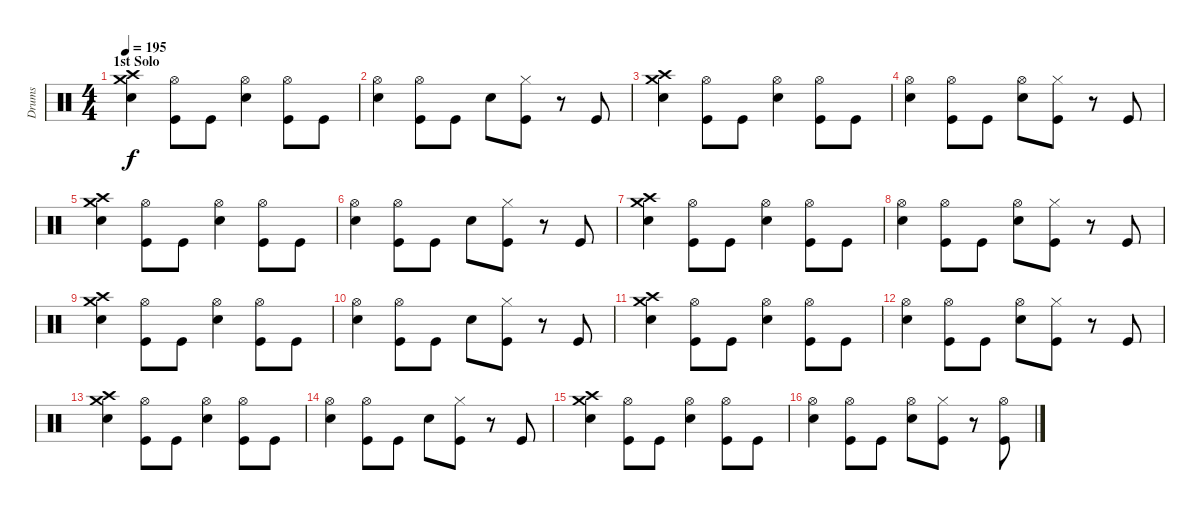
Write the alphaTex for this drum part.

\track ("Drums" "Drums") {instrument percussion}
\staff {score}
\articulation defaults
\ts (4 4)
\section ("" "1st Solo")
\tempo 195
\clef neutral
\ks c
("Crash medium (hit)" "Crash high (hit)" "Electric Snare (hit)").4{dy f} ("Hi-Hat (open)" "Kick (hit)").8 "Kick (hit)".8 ("Hi-Hat (open)" "Electric Snare (hit)").4 ("Hi-Hat (open)" "Kick (hit)").8 "Kick (hit)".8 |
("Hi-Hat (open)" "Electric Snare (hit)").4 ("Hi-Hat (open)" "Kick (hit)").8 "Kick (hit)".8 "Electric Snare (hit)".8 ("Hi-Hat (closed)" "Kick (hit)").8 r.8 "Kick (hit)".8 |
("Crash medium (hit)" "Crash high (hit)" "Electric Snare (hit)").4 ("Hi-Hat (open)" "Kick (hit)").8 "Kick (hit)".8 ("Hi-Hat (open)" "Electric Snare (hit)").4 ("Hi-Hat (open)" "Kick (hit)").8 "Kick (hit)".8 |
("Hi-Hat (open)" "Electric Snare (hit)").4 ("Hi-Hat (open)" "Kick (hit)").8 "Kick (hit)".8 ("Hi-Hat (open)" "Electric Snare (hit)").8 ("Hi-Hat (closed)" "Kick (hit)").8 r.8 "Kick (hit)".8 |
("Crash medium (hit)" "Crash high (hit)" "Electric Snare (hit)").4 ("Hi-Hat (open)" "Kick (hit)").8 "Kick (hit)".8 ("Hi-Hat (open)" "Electric Snare (hit)").4 ("Hi-Hat (open)" "Kick (hit)").8 "Kick (hit)".8 |
("Hi-Hat (open)" "Electric Snare (hit)").4 ("Hi-Hat (open)" "Kick (hit)").8 "Kick (hit)".8 "Electric Snare (hit)".8 ("Hi-Hat (closed)" "Kick (hit)").8 r.8 "Kick (hit)".8 |
("Crash medium (hit)" "Crash high (hit)" "Electric Snare (hit)").4 ("Hi-Hat (open)" "Kick (hit)").8 "Kick (hit)".8 ("Hi-Hat (open)" "Electric Snare (hit)").4 ("Hi-Hat (open)" "Kick (hit)").8 "Kick (hit)".8 |
("Hi-Hat (open)" "Electric Snare (hit)").4 ("Hi-Hat (open)" "Kick (hit)").8 "Kick (hit)".8 ("Hi-Hat (open)" "Electric Snare (hit)").8 ("Hi-Hat (closed)" "Kick (hit)").8 r.8 "Kick (hit)".8 |
("Crash medium (hit)" "Crash high (hit)" "Electric Snare (hit)").4 ("Hi-Hat (open)" "Kick (hit)").8 "Kick (hit)".8 ("Hi-Hat (open)" "Electric Snare (hit)").4 ("Hi-Hat (open)" "Kick (hit)").8 "Kick (hit)".8 |
("Hi-Hat (open)" "Electric Snare (hit)").4 ("Hi-Hat (open)" "Kick (hit)").8 "Kick (hit)".8 "Electric Snare (hit)".8 ("Hi-Hat (closed)" "Kick (hit)").8 r.8 "Kick (hit)".8 |
("Crash medium (hit)" "Crash high (hit)" "Electric Snare (hit)").4 ("Hi-Hat (open)" "Kick (hit)").8 "Kick (hit)".8 ("Hi-Hat (open)" "Electric Snare (hit)").4 ("Hi-Hat (open)" "Kick (hit)").8 "Kick (hit)".8 |
("Hi-Hat (open)" "Electric Snare (hit)").4 ("Hi-Hat (open)" "Kick (hit)").8 "Kick (hit)".8 ("Hi-Hat (open)" "Electric Snare (hit)").8 ("Hi-Hat (closed)" "Kick (hit)").8 r.8 "Kick (hit)".8 |
("Crash medium (hit)" "Crash high (hit)" "Electric Snare (hit)").4 ("Hi-Hat (open)" "Kick (hit)").8 "Kick (hit)".8 ("Hi-Hat (open)" "Electric Snare (hit)").4 ("Hi-Hat (open)" "Kick (hit)").8 "Kick (hit)".8 |
("Hi-Hat (open)" "Electric Snare (hit)").4 ("Hi-Hat (open)" "Kick (hit)").8 "Kick (hit)".8 "Electric Snare (hit)".8 ("Hi-Hat (closed)" "Kick (hit)").8 r.8 "Kick (hit)".8 |
("Crash medium (hit)" "Crash high (hit)" "Electric Snare (hit)").4 ("Hi-Hat (open)" "Kick (hit)").8 "Kick (hit)".8 ("Hi-Hat (open)" "Electric Snare (hit)").4 ("Hi-Hat (open)" "Kick (hit)").8 "Kick (hit)".8 |
("Hi-Hat (open)" "Electric Snare (hit)").4 ("Hi-Hat (open)" "Kick (hit)").8 "Kick (hit)".8 ("Hi-Hat (open)" "Electric Snare (hit)").8 ("Hi-Hat (closed)" "Kick (hit)").8 r.8 ("Hi-Hat (open)" "Kick (hit)").8
